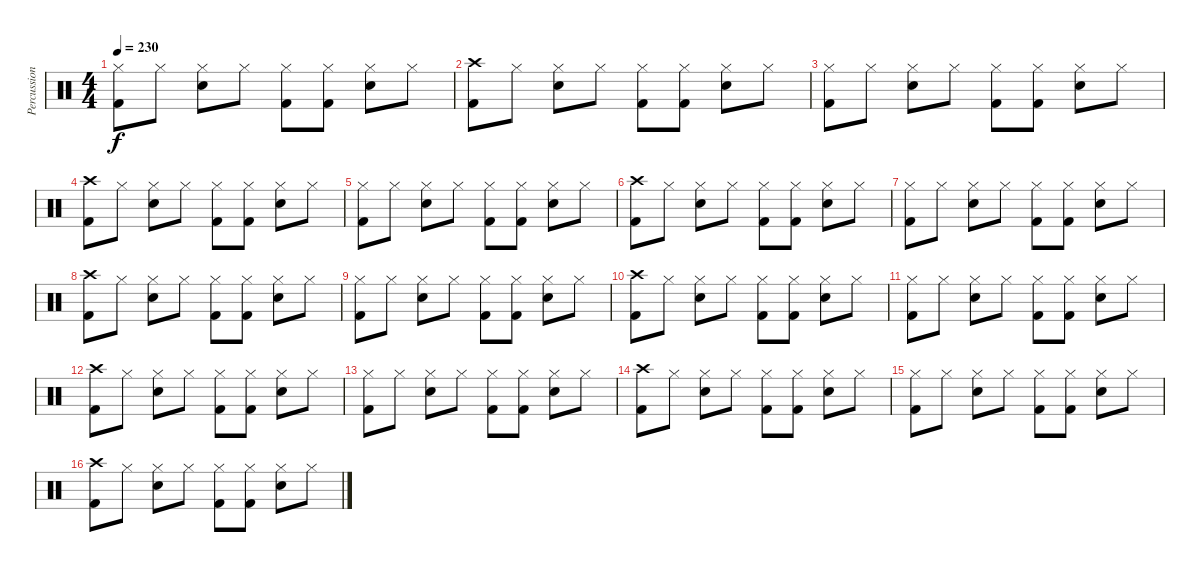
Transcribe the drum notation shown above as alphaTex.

\track ("Percussions" "Percussion") {instrument percussion}
\staff {score}
\articulation defaults
\ts (4 4)
\tempo 230
\clef neutral
\ks c
("Hi-Hat (closed)" "Kick (hit) 2").8{dy f} "Hi-Hat (closed)".8 ("Hi-Hat (closed)" "Electric Snare (hit)").8 "Hi-Hat (closed)".8 ("Hi-Hat (closed)" "Kick (hit) 2").8 ("Hi-Hat (closed)" "Kick (hit) 2").8 ("Hi-Hat (closed)" "Electric Snare (hit)").8 "Hi-Hat (closed)".8 |
("Crash high (hit)" "Kick (hit) 2").8 "Hi-Hat (closed)".8 ("Hi-Hat (closed)" "Electric Snare (hit)").8 "Hi-Hat (closed)".8 ("Hi-Hat (closed)" "Kick (hit) 2").8 ("Hi-Hat (closed)" "Kick (hit) 2").8 ("Hi-Hat (closed)" "Electric Snare (hit)").8 "Hi-Hat (closed)".8 |
("Hi-Hat (closed)" "Kick (hit) 2").8 "Hi-Hat (closed)".8 ("Hi-Hat (closed)" "Electric Snare (hit)").8 "Hi-Hat (closed)".8 ("Hi-Hat (closed)" "Kick (hit) 2").8 ("Hi-Hat (closed)" "Kick (hit) 2").8 ("Hi-Hat (closed)" "Electric Snare (hit)").8 "Hi-Hat (closed)".8 |
("Crash high (hit)" "Kick (hit) 2").8 "Hi-Hat (closed)".8 ("Hi-Hat (closed)" "Electric Snare (hit)").8 "Hi-Hat (closed)".8 ("Hi-Hat (closed)" "Kick (hit) 2").8 ("Hi-Hat (closed)" "Kick (hit) 2").8 ("Hi-Hat (closed)" "Electric Snare (hit)").8 "Hi-Hat (closed)".8 |
("Hi-Hat (closed)" "Kick (hit) 2").8 "Hi-Hat (closed)".8 ("Hi-Hat (closed)" "Electric Snare (hit)").8 "Hi-Hat (closed)".8 ("Hi-Hat (closed)" "Kick (hit) 2").8 ("Hi-Hat (closed)" "Kick (hit) 2").8 ("Hi-Hat (closed)" "Electric Snare (hit)").8 "Hi-Hat (closed)".8 |
("Crash high (hit)" "Kick (hit) 2").8 "Hi-Hat (closed)".8 ("Hi-Hat (closed)" "Electric Snare (hit)").8 "Hi-Hat (closed)".8 ("Hi-Hat (closed)" "Kick (hit) 2").8 ("Hi-Hat (closed)" "Kick (hit) 2").8 ("Hi-Hat (closed)" "Electric Snare (hit)").8 "Hi-Hat (closed)".8 |
("Hi-Hat (closed)" "Kick (hit) 2").8 "Hi-Hat (closed)".8 ("Hi-Hat (closed)" "Electric Snare (hit)").8 "Hi-Hat (closed)".8 ("Hi-Hat (closed)" "Kick (hit) 2").8 ("Hi-Hat (closed)" "Kick (hit) 2").8 ("Hi-Hat (closed)" "Electric Snare (hit)").8 "Hi-Hat (closed)".8 |
("Crash high (hit)" "Kick (hit) 2").8 "Hi-Hat (closed)".8 ("Hi-Hat (closed)" "Electric Snare (hit)").8 "Hi-Hat (closed)".8 ("Hi-Hat (closed)" "Kick (hit) 2").8 ("Hi-Hat (closed)" "Kick (hit) 2").8 ("Hi-Hat (closed)" "Electric Snare (hit)").8 "Hi-Hat (closed)".8 |
("Hi-Hat (closed)" "Kick (hit) 2").8 "Hi-Hat (closed)".8 ("Hi-Hat (closed)" "Electric Snare (hit)").8 "Hi-Hat (closed)".8 ("Hi-Hat (closed)" "Kick (hit) 2").8 ("Hi-Hat (closed)" "Kick (hit) 2").8 ("Hi-Hat (closed)" "Electric Snare (hit)").8 "Hi-Hat (closed)".8 |
("Crash high (hit)" "Kick (hit) 2").8 "Hi-Hat (closed)".8 ("Hi-Hat (closed)" "Electric Snare (hit)").8 "Hi-Hat (closed)".8 ("Hi-Hat (closed)" "Kick (hit) 2").8 ("Hi-Hat (closed)" "Kick (hit) 2").8 ("Hi-Hat (closed)" "Electric Snare (hit)").8 "Hi-Hat (closed)".8 |
("Hi-Hat (closed)" "Kick (hit) 2").8 "Hi-Hat (closed)".8 ("Hi-Hat (closed)" "Electric Snare (hit)").8 "Hi-Hat (closed)".8 ("Hi-Hat (closed)" "Kick (hit) 2").8 ("Hi-Hat (closed)" "Kick (hit) 2").8 ("Hi-Hat (closed)" "Electric Snare (hit)").8 "Hi-Hat (closed)".8 |
("Crash high (hit)" "Kick (hit) 2").8 "Hi-Hat (closed)".8 ("Hi-Hat (closed)" "Electric Snare (hit)").8 "Hi-Hat (closed)".8 ("Hi-Hat (closed)" "Kick (hit) 2").8 ("Hi-Hat (closed)" "Kick (hit) 2").8 ("Hi-Hat (closed)" "Electric Snare (hit)").8 "Hi-Hat (closed)".8 |
("Hi-Hat (closed)" "Kick (hit) 2").8 "Hi-Hat (closed)".8 ("Hi-Hat (closed)" "Electric Snare (hit)").8 "Hi-Hat (closed)".8 ("Hi-Hat (closed)" "Kick (hit) 2").8 ("Hi-Hat (closed)" "Kick (hit) 2").8 ("Hi-Hat (closed)" "Electric Snare (hit)").8 "Hi-Hat (closed)".8 |
("Crash high (hit)" "Kick (hit) 2").8 "Hi-Hat (closed)".8 ("Hi-Hat (closed)" "Electric Snare (hit)").8 "Hi-Hat (closed)".8 ("Hi-Hat (closed)" "Kick (hit) 2").8 ("Hi-Hat (closed)" "Kick (hit) 2").8 ("Hi-Hat (closed)" "Electric Snare (hit)").8 "Hi-Hat (closed)".8 |
("Hi-Hat (closed)" "Kick (hit) 2").8 "Hi-Hat (closed)".8 ("Hi-Hat (closed)" "Electric Snare (hit)").8 "Hi-Hat (closed)".8 ("Hi-Hat (closed)" "Kick (hit) 2").8 ("Hi-Hat (closed)" "Kick (hit) 2").8 ("Hi-Hat (closed)" "Electric Snare (hit)").8 "Hi-Hat (closed)".8 |
("Crash high (hit)" "Kick (hit) 2").8 "Hi-Hat (closed)".8 ("Hi-Hat (closed)" "Electric Snare (hit)").8 "Hi-Hat (closed)".8 ("Hi-Hat (closed)" "Kick (hit) 2").8 ("Hi-Hat (closed)" "Kick (hit) 2").8 ("Hi-Hat (closed)" "Electric Snare (hit)").8 "Hi-Hat (closed)".8
